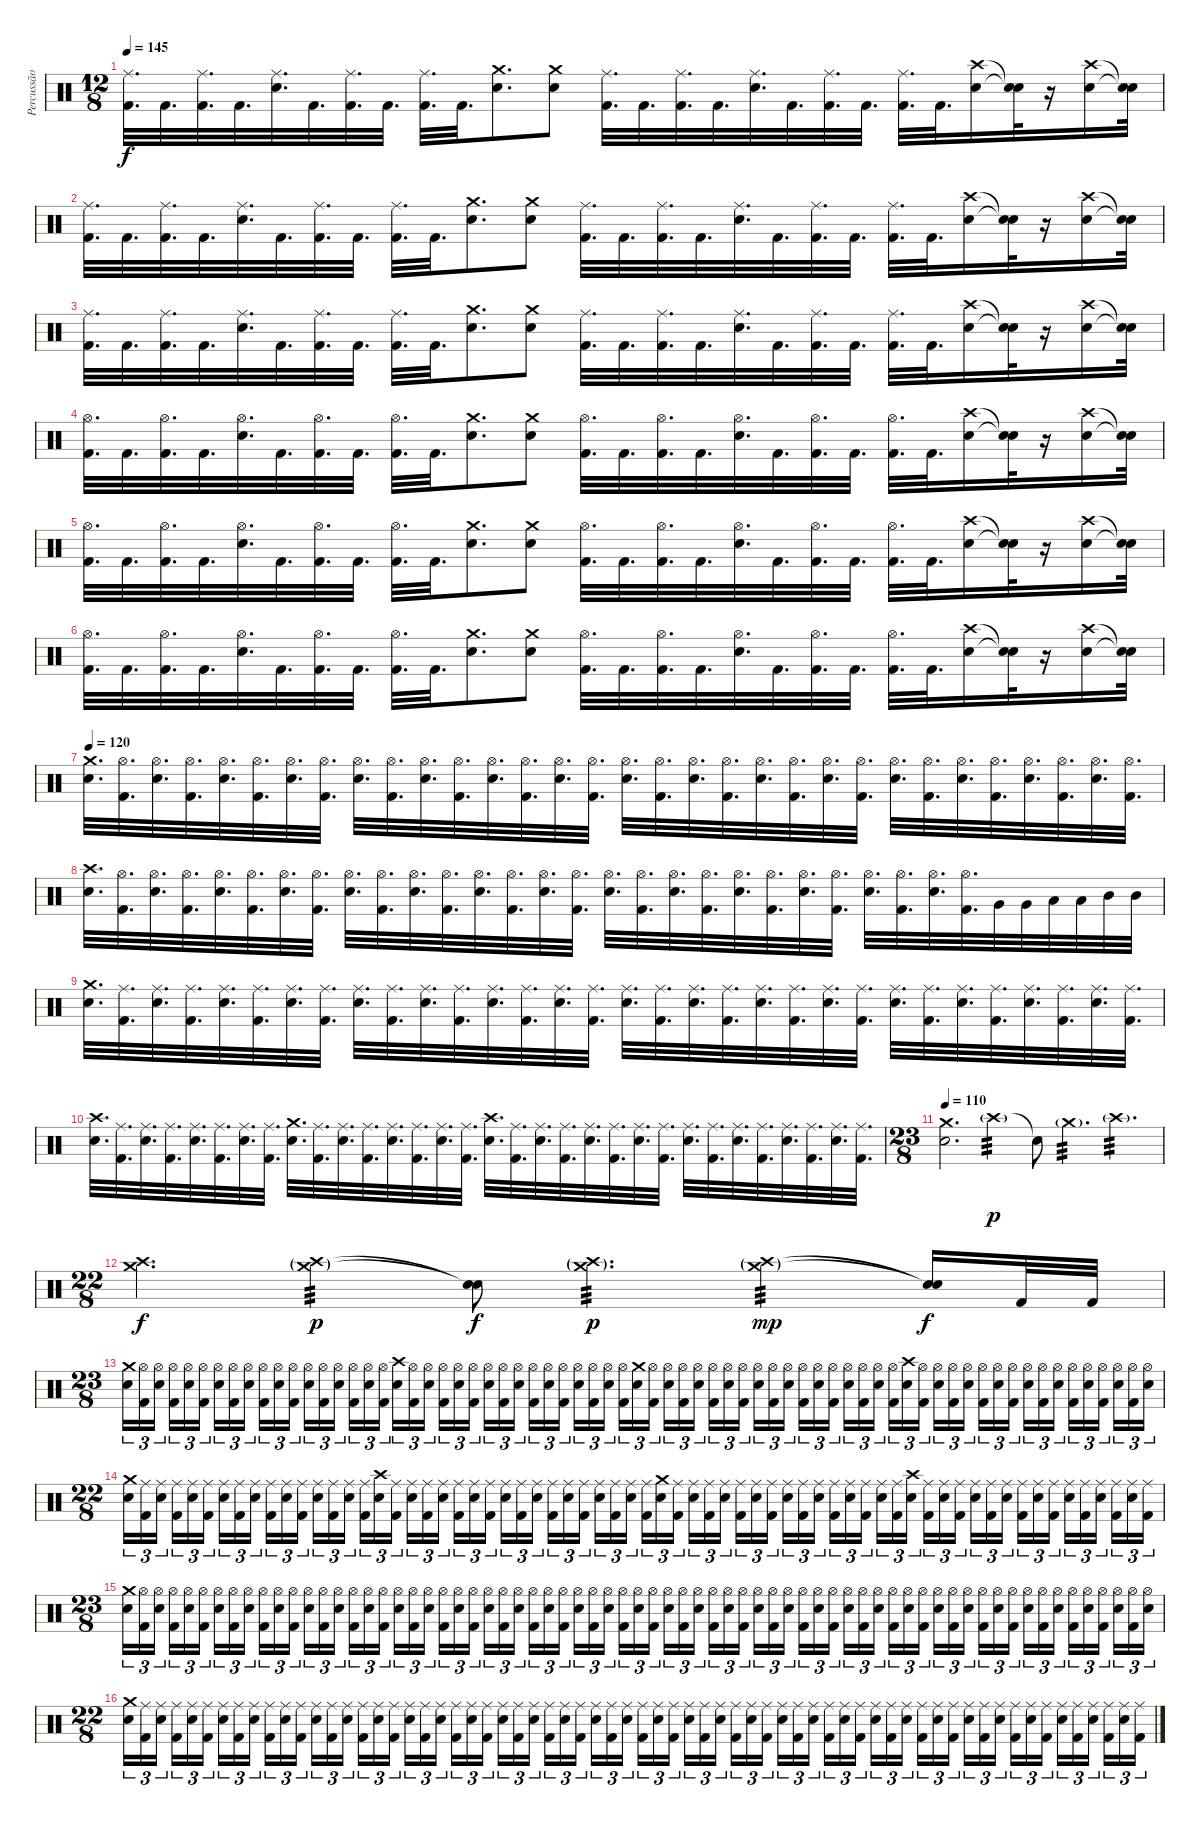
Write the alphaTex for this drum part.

\track ("Percussão" "Percussão") {instrument percussion}
\staff {score}
\articulation defaults
\ts (12 8)
\tempo 145
\clef neutral
\ks c
("Ride (middle)" "Kick (hit) 2").32{d dy f} "Kick (hit) 2".32{d} ("Ride (middle)" "Kick (hit) 2").32{d} "Kick (hit) 2".32{d} ("Ride (middle)" "Electric Snare (hit)").32{d} "Kick (hit) 2".32{d} ("Ride (middle)" "Kick (hit) 2").32{d} "Kick (hit) 2".32{d} ("Ride (middle)" "Kick (hit) 2").32{d} "Kick (hit) 2".32{d} ("Crash medium (hit)" "Electric Snare (hit)").8{d} ("Crash medium (hit)" "Electric Snare (hit)").8 ("Ride (middle)" "Kick (hit) 2").32{d} "Kick (hit) 2".32{d} ("Ride (middle)" "Kick (hit) 2").32{d} "Kick (hit) 2".32{d} ("Ride (middle)" "Electric Snare (hit)").32{d} "Kick (hit) 2".32{d} ("Ride (middle)" "Kick (hit) 2").32{d} "Kick (hit) 2".32{d} ("Ride (middle)" "Kick (hit) 2").32{d} "Kick (hit) 2".32{d} ("Crash high (hit)" "Electric Snare (hit)").16 ("Snare (hit)"{t} "Snare (hit)"{t}).32 r.16 ("Crash high (hit)" "Electric Snare (hit)").16 ("Snare (hit)"{t} "Snare (hit)"{t}).32 |
("Ride (middle)" "Kick (hit) 2").32{d} "Kick (hit) 2".32{d} ("Ride (middle)" "Kick (hit) 2").32{d} "Kick (hit) 2".32{d} ("Ride (middle)" "Electric Snare (hit)").32{d} "Kick (hit) 2".32{d} ("Ride (middle)" "Kick (hit) 2").32{d} "Kick (hit) 2".32{d} ("Ride (middle)" "Kick (hit) 2").32{d} "Kick (hit) 2".32{d} ("Crash medium (hit)" "Electric Snare (hit)").8{d} ("Crash medium (hit)" "Electric Snare (hit)").8 ("Ride (middle)" "Kick (hit) 2").32{d} "Kick (hit) 2".32{d} ("Ride (middle)" "Kick (hit) 2").32{d} "Kick (hit) 2".32{d} ("Ride (middle)" "Electric Snare (hit)").32{d} "Kick (hit) 2".32{d} ("Ride (middle)" "Kick (hit) 2").32{d} "Kick (hit) 2".32{d} ("Ride (middle)" "Kick (hit) 2").32{d} "Kick (hit) 2".32{d} ("Crash high (hit)" "Electric Snare (hit)").16 ("Snare (hit)"{t} "Snare (hit)"{t}).32 r.16 ("Crash high (hit)" "Electric Snare (hit)").16 ("Snare (hit)"{t} "Snare (hit)"{t}).32 |
("Ride (middle)" "Kick (hit) 2").32{d} "Kick (hit) 2".32{d} ("Ride (middle)" "Kick (hit) 2").32{d} "Kick (hit) 2".32{d} ("Ride (middle)" "Electric Snare (hit)").32{d} "Kick (hit) 2".32{d} ("Ride (middle)" "Kick (hit) 2").32{d} "Kick (hit) 2".32{d} ("Ride (middle)" "Kick (hit) 2").32{d} "Kick (hit) 2".32{d} ("Crash medium (hit)" "Electric Snare (hit)").8{d} ("Crash medium (hit)" "Electric Snare (hit)").8 ("Ride (middle)" "Kick (hit) 2").32{d} "Kick (hit) 2".32{d} ("Ride (middle)" "Kick (hit) 2").32{d} "Kick (hit) 2".32{d} ("Ride (middle)" "Electric Snare (hit)").32{d} "Kick (hit) 2".32{d} ("Ride (middle)" "Kick (hit) 2").32{d} "Kick (hit) 2".32{d} ("Ride (middle)" "Kick (hit) 2").32{d} "Kick (hit) 2".32{d} ("Crash high (hit)" "Electric Snare (hit)").16 ("Snare (hit)"{t} "Snare (hit)"{t}).32 r.16 ("Crash high (hit)" "Electric Snare (hit)").16 ("Snare (hit)"{t} "Snare (hit)"{t}).32 |
("Hi-Hat (open)" "Kick (hit) 2").32{d} "Kick (hit) 2".32{d} ("Hi-Hat (open)" "Kick (hit) 2").32{d} "Kick (hit) 2".32{d} ("Hi-Hat (open)" "Electric Snare (hit)").32{d} "Kick (hit) 2".32{d} ("Hi-Hat (open)" "Kick (hit) 2").32{d} "Kick (hit) 2".32{d} ("Hi-Hat (open)" "Kick (hit) 2").32{d} "Kick (hit) 2".32{d} ("Crash medium (hit)" "Electric Snare (hit)").8{d} ("Crash medium (hit)" "Electric Snare (hit)").8 ("Hi-Hat (open)" "Kick (hit) 2").32{d} "Kick (hit) 2".32{d} ("Hi-Hat (open)" "Kick (hit) 2").32{d} "Kick (hit) 2".32{d} ("Hi-Hat (open)" "Electric Snare (hit)").32{d} "Kick (hit) 2".32{d} ("Hi-Hat (open)" "Kick (hit) 2").32{d} "Kick (hit) 2".32{d} ("Hi-Hat (open)" "Kick (hit) 2").32{d} "Kick (hit) 2".32{d} ("Crash high (hit)" "Electric Snare (hit)").16 ("Snare (hit)"{t} "Snare (hit)"{t}).32 r.16 ("Crash high (hit)" "Electric Snare (hit)").16 ("Snare (hit)"{t} "Snare (hit)"{t}).32 |
("Hi-Hat (open)" "Kick (hit) 2").32{d} "Kick (hit) 2".32{d} ("Hi-Hat (open)" "Kick (hit) 2").32{d} "Kick (hit) 2".32{d} ("Hi-Hat (open)" "Electric Snare (hit)").32{d} "Kick (hit) 2".32{d} ("Hi-Hat (open)" "Kick (hit) 2").32{d} "Kick (hit) 2".32{d} ("Hi-Hat (open)" "Kick (hit) 2").32{d} "Kick (hit) 2".32{d} ("Crash medium (hit)" "Electric Snare (hit)").8{d} ("Crash medium (hit)" "Electric Snare (hit)").8 ("Hi-Hat (open)" "Kick (hit) 2").32{d} "Kick (hit) 2".32{d} ("Hi-Hat (open)" "Kick (hit) 2").32{d} "Kick (hit) 2".32{d} ("Hi-Hat (open)" "Electric Snare (hit)").32{d} "Kick (hit) 2".32{d} ("Hi-Hat (open)" "Kick (hit) 2").32{d} "Kick (hit) 2".32{d} ("Hi-Hat (open)" "Kick (hit) 2").32{d} "Kick (hit) 2".32{d} ("Crash high (hit)" "Electric Snare (hit)").16 ("Snare (hit)"{t} "Snare (hit)"{t}).32 r.16 ("Crash high (hit)" "Electric Snare (hit)").16 ("Snare (hit)"{t} "Snare (hit)"{t}).32 |
("Hi-Hat (open)" "Kick (hit) 2").32{d} "Kick (hit) 2".32{d} ("Hi-Hat (open)" "Kick (hit) 2").32{d} "Kick (hit) 2".32{d} ("Hi-Hat (open)" "Electric Snare (hit)").32{d} "Kick (hit) 2".32{d} ("Hi-Hat (open)" "Kick (hit) 2").32{d} "Kick (hit) 2".32{d} ("Hi-Hat (open)" "Kick (hit) 2").32{d} "Kick (hit) 2".32{d} ("Crash medium (hit)" "Electric Snare (hit)").8{d} ("Crash medium (hit)" "Electric Snare (hit)").8 ("Hi-Hat (open)" "Kick (hit) 2").32{d} "Kick (hit) 2".32{d} ("Hi-Hat (open)" "Kick (hit) 2").32{d} "Kick (hit) 2".32{d} ("Hi-Hat (open)" "Electric Snare (hit)").32{d} "Kick (hit) 2".32{d} ("Hi-Hat (open)" "Kick (hit) 2").32{d} "Kick (hit) 2".32{d} ("Hi-Hat (open)" "Kick (hit) 2").32{d} "Kick (hit) 2".32{d} ("Crash high (hit)" "Electric Snare (hit)").16 ("Snare (hit)"{t} "Snare (hit)"{t}).32 r.16 ("Crash high (hit)" "Electric Snare (hit)").16 ("Snare (hit)"{t} "Snare (hit)"{t}).32 |
\tempo 120
("Crash medium (hit)" "Electric Snare (hit)").32{d} ("Hi-Hat (open)" "Kick (hit) 2").32{d} ("Hi-Hat (open)" "Electric Snare (hit)").32{d} ("Hi-Hat (open)" "Kick (hit) 2").32{d} ("Hi-Hat (open)" "Electric Snare (hit)").32{d} ("Hi-Hat (open)" "Kick (hit) 2").32{d} ("Hi-Hat (open)" "Electric Snare (hit)").32{d} ("Hi-Hat (open)" "Kick (hit) 2").32{d} ("Hi-Hat (open)" "Electric Snare (hit)").32{d} ("Hi-Hat (open)" "Kick (hit) 2").32{d} ("Hi-Hat (open)" "Electric Snare (hit)").32{d} ("Hi-Hat (open)" "Kick (hit) 2").32{d} ("Hi-Hat (open)" "Electric Snare (hit)").32{d} ("Hi-Hat (open)" "Kick (hit) 2").32{d} ("Hi-Hat (open)" "Electric Snare (hit)").32{d} ("Hi-Hat (open)" "Kick (hit) 2").32{d} ("Hi-Hat (open)" "Electric Snare (hit)").32{d} ("Hi-Hat (open)" "Kick (hit) 2").32{d} ("Hi-Hat (open)" "Electric Snare (hit)").32{d} ("Hi-Hat (open)" "Kick (hit) 2").32{d} ("Hi-Hat (open)" "Electric Snare (hit)").32{d} ("Hi-Hat (open)" "Kick (hit) 2").32{d} ("Hi-Hat (open)" "Electric Snare (hit)").32{d} ("Hi-Hat (open)" "Kick (hit) 2").32{d} ("Hi-Hat (open)" "Electric Snare (hit)").32{d} ("Hi-Hat (open)" "Kick (hit) 2").32{d} ("Hi-Hat (open)" "Electric Snare (hit)").32{d} ("Hi-Hat (open)" "Kick (hit) 2").32{d} ("Hi-Hat (open)" "Electric Snare (hit)").32{d} ("Hi-Hat (open)" "Kick (hit) 2").32{d} ("Hi-Hat (open)" "Electric Snare (hit)").32{d} ("Hi-Hat (open)" "Kick (hit) 2").32{d} |
("Crash high (hit)" "Electric Snare (hit)").32{d} ("Hi-Hat (open)" "Kick (hit) 2").32{d} ("Hi-Hat (open)" "Electric Snare (hit)").32{d} ("Hi-Hat (open)" "Kick (hit) 2").32{d} ("Hi-Hat (open)" "Electric Snare (hit)").32{d} ("Hi-Hat (open)" "Kick (hit) 2").32{d} ("Hi-Hat (open)" "Electric Snare (hit)").32{d} ("Hi-Hat (open)" "Kick (hit) 2").32{d} ("Hi-Hat (open)" "Electric Snare (hit)").32{d} ("Hi-Hat (open)" "Kick (hit) 2").32{d} ("Hi-Hat (open)" "Electric Snare (hit)").32{d} ("Hi-Hat (open)" "Kick (hit) 2").32{d} ("Hi-Hat (open)" "Electric Snare (hit)").32{d} ("Hi-Hat (open)" "Kick (hit) 2").32{d} ("Hi-Hat (open)" "Electric Snare (hit)").32{d} ("Hi-Hat (open)" "Kick (hit) 2").32{d} ("Hi-Hat (open)" "Electric Snare (hit)").32{d} ("Hi-Hat (open)" "Kick (hit) 2").32{d} ("Hi-Hat (open)" "Electric Snare (hit)").32{d} ("Hi-Hat (open)" "Kick (hit) 2").32{d} ("Hi-Hat (open)" "Electric Snare (hit)").32{d} ("Hi-Hat (open)" "Kick (hit) 2").32{d} ("Hi-Hat (open)" "Electric Snare (hit)").32{d} ("Hi-Hat (open)" "Kick (hit) 2").32{d} ("Hi-Hat (open)" "Electric Snare (hit)").32{d} ("Hi-Hat (open)" "Kick (hit) 2").32{d} ("Hi-Hat (open)" "Electric Snare (hit)").32{d} ("Hi-Hat (open)" "Kick (hit) 2").32{d} "Very Low Tom (hit)".32 "Very Low Tom (hit)".32 "Low Tom (hit)".32 "Low Tom (hit)".32 "Mid Tom (hit)".32 "Mid Tom (hit)".32 |
("Crash medium (hit)" "Electric Snare (hit)").32{d} ("Ride (middle)" "Kick (hit) 2").32{d} ("Ride (middle)" "Electric Snare (hit)").32{d} ("Ride (middle)" "Kick (hit) 2").32{d} ("Ride (middle)" "Electric Snare (hit)").32{d} ("Ride (middle)" "Kick (hit) 2").32{d} ("Ride (middle)" "Electric Snare (hit)").32{d} ("Ride (middle)" "Kick (hit) 2").32{d} ("Ride (middle)" "Electric Snare (hit)").32{d} ("Ride (middle)" "Kick (hit) 2").32{d} ("Ride (middle)" "Electric Snare (hit)").32{d} ("Ride (middle)" "Kick (hit) 2").32{d} ("Ride (middle)" "Electric Snare (hit)").32{d} ("Ride (middle)" "Kick (hit) 2").32{d} ("Ride (middle)" "Electric Snare (hit)").32{d} ("Ride (middle)" "Kick (hit) 2").32{d} ("Ride (middle)" "Electric Snare (hit)").32{d} ("Ride (middle)" "Kick (hit) 2").32{d} ("Ride (middle)" "Electric Snare (hit)").32{d} ("Ride (middle)" "Kick (hit) 2").32{d} ("Ride (middle)" "Electric Snare (hit)").32{d} ("Ride (middle)" "Kick (hit) 2").32{d} ("Ride (middle)" "Electric Snare (hit)").32{d} ("Ride (middle)" "Kick (hit) 2").32{d} ("Ride (middle)" "Electric Snare (hit)").32{d} ("Ride (middle)" "Kick (hit) 2").32{d} ("Ride (middle)" "Electric Snare (hit)").32{d} ("Ride (middle)" "Kick (hit) 2").32{d} ("Ride (middle)" "Electric Snare (hit)").32{d} ("Ride (middle)" "Kick (hit) 2").32{d} ("Ride (middle)" "Electric Snare (hit)").32{d} ("Ride (middle)" "Kick (hit) 2").32{d} |
("Crash high (hit)" "Electric Snare (hit)").32{d} ("Ride (middle)" "Kick (hit) 2").32{d} ("Ride (middle)" "Electric Snare (hit)").32{d} ("Ride (middle)" "Kick (hit) 2").32{d} ("Ride (middle)" "Electric Snare (hit)").32{d} ("Ride (middle)" "Kick (hit) 2").32{d} ("Ride (middle)" "Electric Snare (hit)").32{d} ("Ride (middle)" "Kick (hit) 2").32{d} ("Crash medium (hit)" "Electric Snare (hit)").32{d} ("Ride (middle)" "Kick (hit) 2").32{d} ("Ride (middle)" "Electric Snare (hit)").32{d} ("Ride (middle)" "Kick (hit) 2").32{d} ("Ride (middle)" "Electric Snare (hit)").32{d} ("Ride (middle)" "Kick (hit) 2").32{d} ("Ride (middle)" "Electric Snare (hit)").32{d} ("Ride (middle)" "Kick (hit) 2").32{d} ("Crash high (hit)" "Electric Snare (hit)").32{d} ("Ride (middle)" "Kick (hit) 2").32{d} ("Ride (middle)" "Electric Snare (hit)").32{d} ("Ride (middle)" "Kick (hit) 2").32{d} ("Ride (middle)" "Electric Snare (hit)").32{d} ("Ride (middle)" "Kick (hit) 2").32{d} ("Ride (middle)" "Electric Snare (hit)").32{d} ("Ride (middle)" "Kick (hit) 2").32{d} ("Ride (middle)" "Electric Snare (hit)").32{d} ("Ride (middle)" "Kick (hit) 2").32{d} ("Ride (middle)" "Electric Snare (hit)").32{d} ("Ride (middle)" "Kick (hit) 2").32{d} ("Ride (middle)" "Electric Snare (hit)").32{d} ("Ride (middle)" "Kick (hit) 2").32{d} ("Ride (middle)" "Electric Snare (hit)").32{d} ("Ride (middle)" "Kick (hit) 2").32{d} |
\ts (23 8)
\tempo 110
("Crash medium (hit)" "Electric Snare (hit)").2{d} "Crash high (hit)"{g}.2{tp 3 dy p} "Snare (hit)"{t}.8 "Crash medium (hit)"{g}.2{d tp 3} "Crash high (hit)"{g}.2{d tp 3} |
\ts (22 8)
("Crash medium (hit)" "Crash high (hit)").2{d dy f} ("Crash medium (hit)"{g} "Crash high (hit)"{g}).2{tp 3 dy p} ("Snare (hit)"{t} "Snare (hit)"{t}).8{dy f} ("Crash medium (hit)"{g} "Crash high (hit)"{g}).2{d tp 3 dy p} ("Crash medium (hit)"{g} "Crash high (hit)"{g}).2{tp 3 dy mp} ("Snare (hit)"{t} "Snare (hit)"{t}).16{dy f} "Kick (hit) 2".32 "Kick (hit) 2".32 |
\ts (23 8)
("Crash medium (hit)" "Electric Snare (hit)").16{tu (3 2)} ("Hi-Hat (open)" "Kick (hit) 2").16{tu (3 2)} ("Hi-Hat (open)" "Electric Snare (hit)").16{tu (3 2)} ("Hi-Hat (open)" "Kick (hit) 2").16{tu (3 2)} ("Hi-Hat (open)" "Electric Snare (hit)").16{tu (3 2)} ("Hi-Hat (open)" "Kick (hit) 2").16{tu (3 2)} ("Hi-Hat (open)" "Electric Snare (hit)").16{tu (3 2)} ("Hi-Hat (open)" "Kick (hit) 2").16{tu (3 2)} ("Hi-Hat (open)" "Electric Snare (hit)").16{tu (3 2)} ("Hi-Hat (open)" "Kick (hit) 2").16{tu (3 2)} ("Hi-Hat (open)" "Electric Snare (hit)").16{tu (3 2)} ("Hi-Hat (open)" "Kick (hit) 2").16{tu (3 2)} ("Hi-Hat (open)" "Electric Snare (hit)").16{tu (3 2)} ("Hi-Hat (open)" "Kick (hit) 2").16{tu (3 2)} ("Hi-Hat (open)" "Electric Snare (hit)").16{tu (3 2)} ("Hi-Hat (open)" "Kick (hit) 2").16{tu (3 2)} ("Hi-Hat (open)" "Electric Snare (hit)").16{tu (3 2)} ("Hi-Hat (open)" "Kick (hit) 2").16{tu (3 2)} ("Crash high (hit)" "Electric Snare (hit)").16{tu (3 2)} ("Hi-Hat (open)" "Kick (hit) 2").16{tu (3 2)} ("Hi-Hat (open)" "Electric Snare (hit)").16{tu (3 2)} ("Hi-Hat (open)" "Kick (hit) 2").16{tu (3 2)} ("Hi-Hat (open)" "Electric Snare (hit)").16{tu (3 2)} ("Hi-Hat (open)" "Kick (hit) 2").16{tu (3 2)} ("Hi-Hat (open)" "Electric Snare (hit)").16{tu (3 2)} ("Hi-Hat (open)" "Kick (hit) 2").16{tu (3 2)} ("Hi-Hat (open)" "Electric Snare (hit)").16{tu (3 2)} ("Hi-Hat (open)" "Kick (hit) 2").16{tu (3 2)} ("Hi-Hat (open)" "Electric Snare (hit)").16{tu (3 2)} ("Hi-Hat (open)" "Kick (hit) 2").16{tu (3 2)} ("Hi-Hat (open)" "Electric Snare (hit)").16{tu (3 2)} ("Hi-Hat (open)" "Kick (hit) 2").16{tu (3 2)} ("Hi-Hat (open)" "Electric Snare (hit)").16{tu (3 2)} ("Hi-Hat (open)" "Kick (hit) 2").16{tu (3 2)} ("Crash medium (hit)" "Electric Snare (hit)").16{tu (3 2)} ("Hi-Hat (open)" "Kick (hit) 2").16{tu (3 2)} ("Hi-Hat (open)" "Electric Snare (hit)").16{tu (3 2)} ("Hi-Hat (open)" "Kick (hit) 2").16{tu (3 2)} ("Hi-Hat (open)" "Electric Snare (hit)").16{tu (3 2)} ("Hi-Hat (open)" "Kick (hit) 2").16{tu (3 2)} ("Hi-Hat (open)" "Electric Snare (hit)").16{tu (3 2)} ("Hi-Hat (open)" "Kick (hit) 2").16{tu (3 2)} ("Hi-Hat (open)" "Electric Snare (hit)").16{tu (3 2)} ("Hi-Hat (open)" "Kick (hit) 2").16{tu (3 2)} ("Hi-Hat (open)" "Electric Snare (hit)").16{tu (3 2)} ("Hi-Hat (open)" "Kick (hit) 2").16{tu (3 2)} ("Hi-Hat (open)" "Electric Snare (hit)").16{tu (3 2)} ("Hi-Hat (open)" "Kick (hit) 2").16{tu (3 2)} ("Hi-Hat (open)" "Electric Snare (hit)").16{tu (3 2)} ("Hi-Hat (open)" "Kick (hit) 2").16{tu (3 2)} ("Hi-Hat (open)" "Electric Snare (hit)").16{tu (3 2)} ("Hi-Hat (open)" "Kick (hit) 2").16{tu (3 2)} ("Crash high (hit)" "Electric Snare (hit)").16{tu (3 2)} ("Hi-Hat (open)" "Kick (hit) 2").16{tu (3 2)} ("Hi-Hat (open)" "Electric Snare (hit)").16{tu (3 2)} ("Hi-Hat (open)" "Kick (hit) 2").16{tu (3 2)} ("Hi-Hat (open)" "Electric Snare (hit)").16{tu (3 2)} ("Hi-Hat (open)" "Kick (hit) 2").16{tu (3 2)} ("Hi-Hat (open)" "Electric Snare (hit)").16{tu (3 2)} ("Hi-Hat (open)" "Kick (hit) 2").16{tu (3 2)} ("Hi-Hat (open)" "Electric Snare (hit)").16{tu (3 2)} ("Hi-Hat (open)" "Kick (hit) 2").16{tu (3 2)} ("Hi-Hat (open)" "Electric Snare (hit)").16{tu (3 2)} ("Hi-Hat (open)" "Kick (hit) 2").16{tu (3 2)} ("Hi-Hat (open)" "Electric Snare (hit)").16{tu (3 2)} ("Hi-Hat (open)" "Kick (hit) 2").16{tu (3 2)} ("Hi-Hat (open)" "Electric Snare (hit)").16{tu (3 2)} ("Hi-Hat (open)" "Kick (hit) 2").16{tu (3 2)} ("Hi-Hat (open)" "Electric Snare (hit)").16{tu (3 2)} |
\ts (22 8)
("Crash medium (hit)" "Electric Snare (hit)").16{tu (3 2)} ("Ride (middle)" "Kick (hit) 2").16{tu (3 2)} ("Ride (middle)" "Electric Snare (hit)").16{tu (3 2)} ("Ride (middle)" "Kick (hit) 2").16{tu (3 2)} ("Ride (middle)" "Electric Snare (hit)").16{tu (3 2)} ("Ride (middle)" "Kick (hit) 2").16{tu (3 2)} ("Ride (middle)" "Electric Snare (hit)").16{tu (3 2)} ("Ride (middle)" "Kick (hit) 2").16{tu (3 2)} ("Ride (middle)" "Electric Snare (hit)").16{tu (3 2)} ("Ride (middle)" "Kick (hit) 2").16{tu (3 2)} ("Ride (middle)" "Electric Snare (hit)").16{tu (3 2)} ("Ride (middle)" "Kick (hit) 2").16{tu (3 2)} ("Ride (middle)" "Electric Snare (hit)").16{tu (3 2)} ("Ride (middle)" "Kick (hit) 2").16{tu (3 2)} ("Ride (middle)" "Electric Snare (hit)").16{tu (3 2)} ("Ride (middle)" "Kick (hit) 2").16{tu (3 2)} ("Crash high (hit)" "Electric Snare (hit)").16{tu (3 2)} ("Ride (middle)" "Kick (hit) 2").16{tu (3 2)} ("Ride (middle)" "Electric Snare (hit)").16{tu (3 2)} ("Ride (middle)" "Kick (hit) 2").16{tu (3 2)} ("Ride (middle)" "Electric Snare (hit)").16{tu (3 2)} ("Ride (middle)" "Kick (hit) 2").16{tu (3 2)} ("Ride (middle)" "Electric Snare (hit)").16{tu (3 2)} ("Ride (middle)" "Kick (hit) 2").16{tu (3 2)} ("Ride (middle)" "Electric Snare (hit)").16{tu (3 2)} ("Ride (middle)" "Kick (hit) 2").16{tu (3 2)} ("Ride (middle)" "Electric Snare (hit)").16{tu (3 2)} ("Ride (middle)" "Kick (hit) 2").16{tu (3 2)} ("Ride (middle)" "Electric Snare (hit)").16{tu (3 2)} ("Ride (middle)" "Kick (hit) 2").16{tu (3 2)} ("Ride (middle)" "Electric Snare (hit)").16{tu (3 2)} ("Ride (middle)" "Kick (hit) 2").16{tu (3 2)} ("Ride (middle)" "Electric Snare (hit)").16{tu (3 2)} ("Ride (middle)" "Kick (hit) 2").16{tu (3 2)} ("Crash medium (hit)" "Electric Snare (hit)").16{tu (3 2)} ("Ride (middle)" "Kick (hit) 2").16{tu (3 2)} ("Ride (middle)" "Electric Snare (hit)").16{tu (3 2)} ("Ride (middle)" "Kick (hit) 2").16{tu (3 2)} ("Ride (middle)" "Electric Snare (hit)").16{tu (3 2)} ("Ride (middle)" "Kick (hit) 2").16{tu (3 2)} ("Ride (middle)" "Electric Snare (hit)").16{tu (3 2)} ("Ride (middle)" "Kick (hit) 2").16{tu (3 2)} ("Ride (middle)" "Electric Snare (hit)").16{tu (3 2)} ("Ride (middle)" "Kick (hit) 2").16{tu (3 2)} ("Ride (middle)" "Electric Snare (hit)").16{tu (3 2)} ("Ride (middle)" "Kick (hit) 2").16{tu (3 2)} ("Ride (middle)" "Electric Snare (hit)").16{tu (3 2)} ("Ride (middle)" "Kick (hit) 2").16{tu (3 2)} ("Ride (middle)" "Electric Snare (hit)").16{tu (3 2)} ("Ride (middle)" "Kick (hit) 2").16{tu (3 2)} ("Crash high (hit)" "Electric Snare (hit)").16{tu (3 2)} ("Ride (middle)" "Kick (hit) 2").16{tu (3 2)} ("Ride (middle)" "Electric Snare (hit)").16{tu (3 2)} ("Ride (middle)" "Kick (hit) 2").16{tu (3 2)} ("Ride (middle)" "Electric Snare (hit)").16{tu (3 2)} ("Ride (middle)" "Kick (hit) 2").16{tu (3 2)} ("Ride (middle)" "Electric Snare (hit)").16{tu (3 2)} ("Ride (middle)" "Kick (hit) 2").16{tu (3 2)} ("Ride (middle)" "Electric Snare (hit)").16{tu (3 2)} ("Ride (middle)" "Kick (hit) 2").16{tu (3 2)} ("Ride (middle)" "Electric Snare (hit)").16{tu (3 2)} ("Ride (middle)" "Kick (hit) 2").16{tu (3 2)} ("Ride (middle)" "Electric Snare (hit)").16{tu (3 2)} ("Ride (middle)" "Kick (hit) 2").16{tu (3 2)} ("Ride (middle)" "Electric Snare (hit)").16{tu (3 2)} ("Ride (middle)" "Kick (hit) 2").16{tu (3 2)} |
\ts (23 8)
("Crash medium (hit)" "Electric Snare (hit)").16{tu (3 2)} ("Hi-Hat (open)" "Kick (hit) 2").16{tu (3 2)} ("Hi-Hat (open)" "Electric Snare (hit)").16{tu (3 2)} ("Hi-Hat (open)" "Kick (hit) 2").16{tu (3 2)} ("Hi-Hat (open)" "Electric Snare (hit)").16{tu (3 2)} ("Hi-Hat (open)" "Kick (hit) 2").16{tu (3 2)} ("Hi-Hat (open)" "Electric Snare (hit)").16{tu (3 2)} ("Hi-Hat (open)" "Kick (hit) 2").16{tu (3 2)} ("Hi-Hat (open)" "Electric Snare (hit)").16{tu (3 2)} ("Hi-Hat (open)" "Kick (hit) 2").16{tu (3 2)} ("Hi-Hat (open)" "Electric Snare (hit)").16{tu (3 2)} ("Hi-Hat (open)" "Kick (hit) 2").16{tu (3 2)} ("Hi-Hat (open)" "Electric Snare (hit)").16{tu (3 2)} ("Hi-Hat (open)" "Kick (hit) 2").16{tu (3 2)} ("Hi-Hat (open)" "Electric Snare (hit)").16{tu (3 2)} ("Hi-Hat (open)" "Kick (hit) 2").16{tu (3 2)} ("Hi-Hat (open)" "Electric Snare (hit)").16{tu (3 2)} ("Hi-Hat (open)" "Kick (hit) 2").16{tu (3 2)} ("Hi-Hat (open)" "Electric Snare (hit)").16{tu (3 2)} ("Hi-Hat (open)" "Kick (hit) 2").16{tu (3 2)} ("Hi-Hat (open)" "Electric Snare (hit)").16{tu (3 2)} ("Hi-Hat (open)" "Kick (hit) 2").16{tu (3 2)} ("Hi-Hat (open)" "Electric Snare (hit)").16{tu (3 2)} ("Hi-Hat (open)" "Kick (hit) 2").16{tu (3 2)} ("Hi-Hat (open)" "Electric Snare (hit)").16{tu (3 2)} ("Hi-Hat (open)" "Kick (hit) 2").16{tu (3 2)} ("Hi-Hat (open)" "Electric Snare (hit)").16{tu (3 2)} ("Hi-Hat (open)" "Kick (hit) 2").16{tu (3 2)} ("Hi-Hat (open)" "Electric Snare (hit)").16{tu (3 2)} ("Hi-Hat (open)" "Kick (hit) 2").16{tu (3 2)} ("Hi-Hat (open)" "Electric Snare (hit)").16{tu (3 2)} ("Hi-Hat (open)" "Kick (hit) 2").16{tu (3 2)} ("Hi-Hat (open)" "Electric Snare (hit)").16{tu (3 2)} ("Hi-Hat (open)" "Kick (hit) 2").16{tu (3 2)} ("Hi-Hat (open)" "Electric Snare (hit)").16{tu (3 2)} ("Hi-Hat (open)" "Kick (hit) 2").16{tu (3 2)} ("Hi-Hat (open)" "Electric Snare (hit)").16{tu (3 2)} ("Hi-Hat (open)" "Kick (hit) 2").16{tu (3 2)} ("Hi-Hat (open)" "Electric Snare (hit)").16{tu (3 2)} ("Hi-Hat (open)" "Kick (hit) 2").16{tu (3 2)} ("Hi-Hat (open)" "Electric Snare (hit)").16{tu (3 2)} ("Hi-Hat (open)" "Kick (hit) 2").16{tu (3 2)} ("Hi-Hat (open)" "Electric Snare (hit)").16{tu (3 2)} ("Hi-Hat (open)" "Kick (hit) 2").16{tu (3 2)} ("Hi-Hat (open)" "Electric Snare (hit)").16{tu (3 2)} ("Hi-Hat (open)" "Kick (hit) 2").16{tu (3 2)} ("Hi-Hat (open)" "Electric Snare (hit)").16{tu (3 2)} ("Hi-Hat (open)" "Kick (hit) 2").16{tu (3 2)} ("Hi-Hat (open)" "Electric Snare (hit)").16{tu (3 2)} ("Hi-Hat (open)" "Kick (hit) 2").16{tu (3 2)} ("Hi-Hat (open)" "Electric Snare (hit)").16{tu (3 2)} ("Hi-Hat (open)" "Kick (hit) 2").16{tu (3 2)} ("Hi-Hat (open)" "Electric Snare (hit)").16{tu (3 2)} ("Hi-Hat (open)" "Kick (hit) 2").16{tu (3 2)} ("Hi-Hat (open)" "Electric Snare (hit)").16{tu (3 2)} ("Hi-Hat (open)" "Kick (hit) 2").16{tu (3 2)} ("Hi-Hat (open)" "Electric Snare (hit)").16{tu (3 2)} ("Hi-Hat (open)" "Kick (hit) 2").16{tu (3 2)} ("Hi-Hat (open)" "Electric Snare (hit)").16{tu (3 2)} ("Hi-Hat (open)" "Kick (hit) 2").16{tu (3 2)} ("Hi-Hat (open)" "Electric Snare (hit)").16{tu (3 2)} ("Hi-Hat (open)" "Kick (hit) 2").16{tu (3 2)} ("Hi-Hat (open)" "Electric Snare (hit)").16{tu (3 2)} ("Hi-Hat (open)" "Kick (hit) 2").16{tu (3 2)} ("Hi-Hat (open)" "Electric Snare (hit)").16{tu (3 2)} ("Hi-Hat (open)" "Kick (hit) 2").16{tu (3 2)} ("Hi-Hat (open)" "Electric Snare (hit)").16{tu (3 2)} ("Hi-Hat (open)" "Kick (hit) 2").16{tu (3 2)} ("Hi-Hat (open)" "Electric Snare (hit)").16{tu (3 2)} |
\ts (22 8)
("Crash medium (hit)" "Electric Snare (hit)").16{tu (3 2)} ("Ride (middle)" "Kick (hit) 2").16{tu (3 2)} ("Ride (middle)" "Electric Snare (hit)").16{tu (3 2)} ("Ride (middle)" "Kick (hit) 2").16{tu (3 2)} ("Ride (middle)" "Electric Snare (hit)").16{tu (3 2)} ("Ride (middle)" "Kick (hit) 2").16{tu (3 2)} ("Ride (middle)" "Electric Snare (hit)").16{tu (3 2)} ("Ride (middle)" "Kick (hit) 2").16{tu (3 2)} ("Ride (middle)" "Electric Snare (hit)").16{tu (3 2)} ("Ride (middle)" "Kick (hit) 2").16{tu (3 2)} ("Ride (middle)" "Electric Snare (hit)").16{tu (3 2)} ("Ride (middle)" "Kick (hit) 2").16{tu (3 2)} ("Ride (middle)" "Electric Snare (hit)").16{tu (3 2)} ("Ride (middle)" "Kick (hit) 2").16{tu (3 2)} ("Ride (middle)" "Electric Snare (hit)").16{tu (3 2)} ("Ride (middle)" "Kick (hit) 2").16{tu (3 2)} ("Ride (middle)" "Electric Snare (hit)").16{tu (3 2)} ("Ride (middle)" "Kick (hit) 2").16{tu (3 2)} ("Ride (middle)" "Electric Snare (hit)").16{tu (3 2)} ("Ride (middle)" "Kick (hit) 2").16{tu (3 2)} ("Ride (middle)" "Electric Snare (hit)").16{tu (3 2)} ("Ride (middle)" "Kick (hit) 2").16{tu (3 2)} ("Ride (middle)" "Electric Snare (hit)").16{tu (3 2)} ("Ride (middle)" "Kick (hit) 2").16{tu (3 2)} ("Ride (middle)" "Electric Snare (hit)").16{tu (3 2)} ("Ride (middle)" "Kick (hit) 2").16{tu (3 2)} ("Ride (middle)" "Electric Snare (hit)").16{tu (3 2)} ("Ride (middle)" "Kick (hit) 2").16{tu (3 2)} ("Ride (middle)" "Electric Snare (hit)").16{tu (3 2)} ("Ride (middle)" "Kick (hit) 2").16{tu (3 2)} ("Ride (middle)" "Electric Snare (hit)").16{tu (3 2)} ("Ride (middle)" "Kick (hit) 2").16{tu (3 2)} ("Ride (middle)" "Electric Snare (hit)").16{tu (3 2)} ("Ride (middle)" "Kick (hit) 2").16{tu (3 2)} ("Ride (middle)" "Electric Snare (hit)").16{tu (3 2)} ("Ride (middle)" "Kick (hit) 2").16{tu (3 2)} ("Ride (middle)" "Electric Snare (hit)").16{tu (3 2)} ("Ride (middle)" "Kick (hit) 2").16{tu (3 2)} ("Ride (middle)" "Electric Snare (hit)").16{tu (3 2)} ("Ride (middle)" "Kick (hit) 2").16{tu (3 2)} ("Ride (middle)" "Electric Snare (hit)").16{tu (3 2)} ("Ride (middle)" "Kick (hit) 2").16{tu (3 2)} ("Ride (middle)" "Electric Snare (hit)").16{tu (3 2)} ("Ride (middle)" "Kick (hit) 2").16{tu (3 2)} ("Ride (middle)" "Electric Snare (hit)").16{tu (3 2)} ("Ride (middle)" "Kick (hit) 2").16{tu (3 2)} ("Ride (middle)" "Electric Snare (hit)").16{tu (3 2)} ("Ride (middle)" "Kick (hit) 2").16{tu (3 2)} ("Ride (middle)" "Electric Snare (hit)").16{tu (3 2)} ("Ride (middle)" "Kick (hit) 2").16{tu (3 2)} ("Ride (middle)" "Electric Snare (hit)").16{tu (3 2)} ("Ride (middle)" "Kick (hit) 2").16{tu (3 2)} ("Ride (middle)" "Electric Snare (hit)").16{tu (3 2)} ("Ride (middle)" "Kick (hit) 2").16{tu (3 2)} ("Ride (middle)" "Electric Snare (hit)").16{tu (3 2)} ("Ride (middle)" "Kick (hit) 2").16{tu (3 2)} ("Ride (middle)" "Electric Snare (hit)").16{tu (3 2)} ("Ride (middle)" "Kick (hit) 2").16{tu (3 2)} ("Ride (middle)" "Electric Snare (hit)").16{tu (3 2)} ("Ride (middle)" "Kick (hit) 2").16{tu (3 2)} ("Ride (middle)" "Electric Snare (hit)").16{tu (3 2)} ("Ride (middle)" "Kick (hit) 2").16{tu (3 2)} ("Ride (middle)" "Electric Snare (hit)").16{tu (3 2)} ("Ride (middle)" "Kick (hit) 2").16{tu (3 2)} ("Ride (middle)" "Electric Snare (hit)").16{tu (3 2)} ("Ride (middle)" "Kick (hit) 2").16{tu (3 2)}
